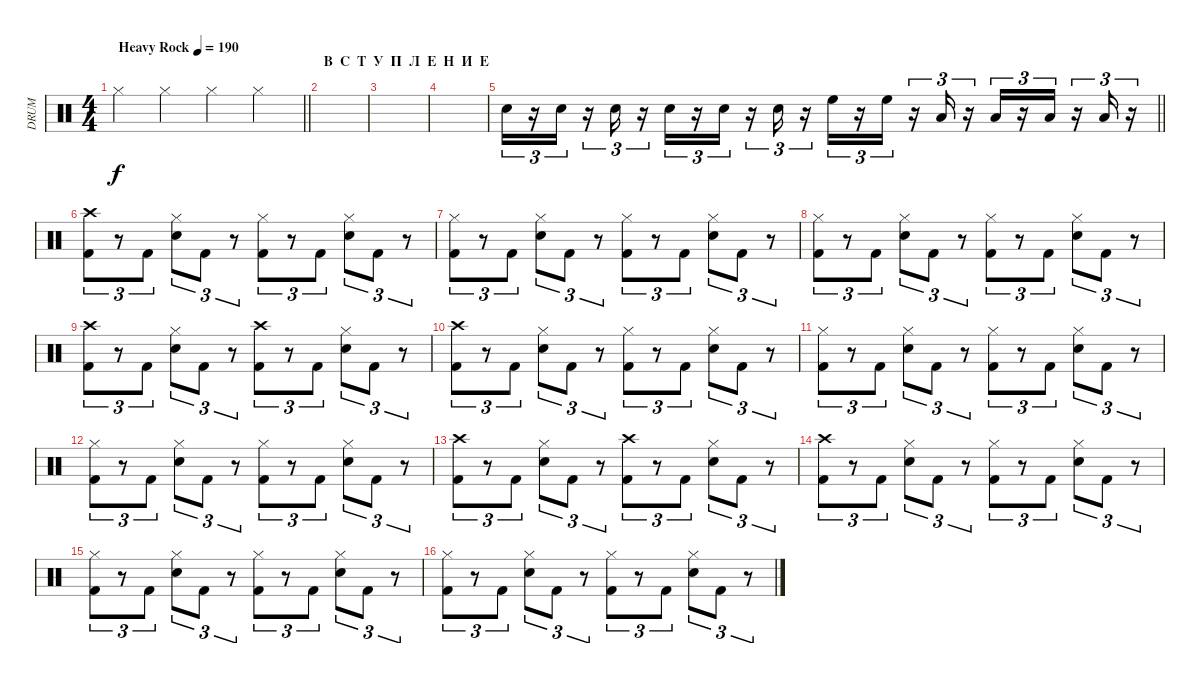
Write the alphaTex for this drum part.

\track ("DRUM" "DRUM") {instrument percussion bank 127}
\staff {score}
\articulation defaults
\ts (4 4)
\tempo (190 "Heavy Rock")
\clef neutral
\barLineRight lightlight
\ks c "Hi-Hat (closed)".4{dy f} "Hi-Hat (closed)".4 "Hi-Hat (closed)".4 "Hi-Hat (closed)".4
|
\section ("" "В  С  Т  У  П  Л  Е  Н  И  Е")
|
|
|
\barLineRight lightlight "Electric Snare (hit)".16{tu (3 2)}
r.16{tu (3 2)} "Electric Snare (hit)".16{tu (3 2)} r.16{tu (3 2)} "Electric Snare (hit)".16{tu (3 2)} r.16{tu (3 2)} "Electric Snare (hit)".16{tu (3 2)} r.16{tu (3 2)} "Electric Snare (hit)".16{tu (3 2)} r.16{tu (3 2)} "Electric Snare (hit)".16{tu (3 2)} r.16{tu (3 2)} "High Floor Tom (hit)".16{tu (3 2)} r.16{tu (3 2)} "High Floor Tom (hit)".16{tu (3 2)} r.16{tu (3 2)} "Low Tom (hit)".16{tu (3 2)} r.16{tu (3 2)} "Low Tom (hit)".16{tu (3 2)} r.16{tu (3 2)} "Low Tom (hit)".16{tu (3 2)} r.16{tu (3 2)} "Low Tom (hit)".16{tu (3 2)} r.16{tu (3 2)} |
("Crash high (hit)" "Kick (hit) 2").8{tu (3 2)} r.8{tu (3 2)} "Kick (hit) 2".8{tu (3 2)} ("Hi-Hat (closed)" "Electric Snare (hit)").8{tu (3 2)} "Kick (hit) 2".8{tu (3 2)} r.8{tu (3 2)} ("Hi-Hat (closed)" "Kick (hit) 2").8{tu (3 2)} r.8{tu (3 2)} "Kick (hit) 2".8{tu (3 2)} ("Hi-Hat (closed)" "Electric Snare (hit)").8{tu (3 2)} "Kick (hit) 2".8{tu (3 2)} r.8{tu (3 2)} |
("Hi-Hat (closed)" "Kick (hit) 2").8{tu (3 2)} r.8{tu (3 2)} "Kick (hit) 2".8{tu (3 2)} ("Hi-Hat (closed)" "Electric Snare (hit)").8{tu (3 2)} "Kick (hit) 2".8{tu (3 2)} r.8{tu (3 2)} ("Hi-Hat (closed)" "Kick (hit) 2").8{tu (3 2)} r.8{tu (3 2)} "Kick (hit) 2".8{tu (3 2)} ("Hi-Hat (closed)" "Electric Snare (hit)").8{tu (3 2)} "Kick (hit) 2".8{tu (3 2)} r.8{tu (3 2)} |
("Hi-Hat (closed)" "Kick (hit) 2").8{tu (3 2)} r.8{tu (3 2)} "Kick (hit) 2".8{tu (3 2)} ("Hi-Hat (closed)" "Electric Snare (hit)").8{tu (3 2)} "Kick (hit) 2".8{tu (3 2)} r.8{tu (3 2)} ("Hi-Hat (closed)" "Kick (hit) 2").8{tu (3 2)} r.8{tu (3 2)} "Kick (hit) 2".8{tu (3 2)} ("Hi-Hat (closed)" "Electric Snare (hit)").8{tu (3 2)} "Kick (hit) 2".8{tu (3 2)} r.8{tu (3 2)} |
("Crash high (hit)" "Kick (hit) 2").8{tu (3 2)} r.8{tu (3 2)} "Kick (hit) 2".8{tu (3 2)} ("Hi-Hat (closed)" "Electric Snare (hit)").8{tu (3 2)} "Kick (hit) 2".8{tu (3 2)} r.8{tu (3 2)} ("Crash high (hit)" "Kick (hit) 2").8{tu (3 2)} r.8{tu (3 2)} "Kick (hit) 2".8{tu (3 2)} ("Hi-Hat (closed)" "Electric Snare (hit)").8{tu (3 2)} "Kick (hit) 2".8{tu (3 2)} r.8{tu (3 2)} |
("Crash high (hit)" "Kick (hit) 2").8{tu (3 2)} r.8{tu (3 2)} "Kick (hit) 2".8{tu (3 2)} ("Hi-Hat (closed)" "Electric Snare (hit)").8{tu (3 2)} "Kick (hit) 2".8{tu (3 2)} r.8{tu (3 2)} ("Hi-Hat (closed)" "Kick (hit) 2").8{tu (3 2)} r.8{tu (3 2)} "Kick (hit) 2".8{tu (3 2)} ("Hi-Hat (closed)" "Electric Snare (hit)").8{tu (3 2)} "Kick (hit) 2".8{tu (3 2)} r.8{tu (3 2)} |
("Hi-Hat (closed)" "Kick (hit) 2").8{tu (3 2)} r.8{tu (3 2)} "Kick (hit) 2".8{tu (3 2)} ("Hi-Hat (closed)" "Electric Snare (hit)").8{tu (3 2)} "Kick (hit) 2".8{tu (3 2)} r.8{tu (3 2)} ("Hi-Hat (closed)" "Kick (hit) 2").8{tu (3 2)} r.8{tu (3 2)} "Kick (hit) 2".8{tu (3 2)} ("Hi-Hat (closed)" "Electric Snare (hit)").8{tu (3 2)} "Kick (hit) 2".8{tu (3 2)} r.8{tu (3 2)} |
("Hi-Hat (closed)" "Kick (hit) 2").8{tu (3 2)} r.8{tu (3 2)} "Kick (hit) 2".8{tu (3 2)} ("Hi-Hat (closed)" "Electric Snare (hit)").8{tu (3 2)} "Kick (hit) 2".8{tu (3 2)} r.8{tu (3 2)} ("Hi-Hat (closed)" "Kick (hit) 2").8{tu (3 2)} r.8{tu (3 2)} "Kick (hit) 2".8{tu (3 2)} ("Hi-Hat (closed)" "Electric Snare (hit)").8{tu (3 2)} "Kick (hit) 2".8{tu (3 2)} r.8{tu (3 2)} |
("Crash high (hit)" "Kick (hit) 2").8{tu (3 2)} r.8{tu (3 2)} "Kick (hit) 2".8{tu (3 2)} ("Hi-Hat (closed)" "Electric Snare (hit)").8{tu (3 2)} "Kick (hit) 2".8{tu (3 2)} r.8{tu (3 2)} ("Crash high (hit)" "Kick (hit) 2").8{tu (3 2)} r.8{tu (3 2)} "Kick (hit) 2".8{tu (3 2)} ("Hi-Hat (closed)" "Electric Snare (hit)").8{tu (3 2)} "Kick (hit) 2".8{tu (3 2)} r.8{tu (3 2)} |
("Crash high (hit)" "Kick (hit) 2").8{tu (3 2)} r.8{tu (3 2)} "Kick (hit) 2".8{tu (3 2)} ("Hi-Hat (closed)" "Electric Snare (hit)").8{tu (3 2)} "Kick (hit) 2".8{tu (3 2)} r.8{tu (3 2)} ("Hi-Hat (closed)" "Kick (hit) 2").8{tu (3 2)} r.8{tu (3 2)} "Kick (hit) 2".8{tu (3 2)} ("Hi-Hat (closed)" "Electric Snare (hit)").8{tu (3 2)} "Kick (hit) 2".8{tu (3 2)} r.8{tu (3 2)} |
("Hi-Hat (closed)" "Kick (hit) 2").8{tu (3 2)} r.8{tu (3 2)} "Kick (hit) 2".8{tu (3 2)} ("Hi-Hat (closed)" "Electric Snare (hit)").8{tu (3 2)} "Kick (hit) 2".8{tu (3 2)} r.8{tu (3 2)} ("Hi-Hat (closed)" "Kick (hit) 2").8{tu (3 2)} r.8{tu (3 2)} "Kick (hit) 2".8{tu (3 2)} ("Hi-Hat (closed)" "Electric Snare (hit)").8{tu (3 2)} "Kick (hit) 2".8{tu (3 2)} r.8{tu (3 2)} |
("Hi-Hat (closed)" "Kick (hit) 2").8{tu (3 2)} r.8{tu (3 2)} "Kick (hit) 2".8{tu (3 2)} ("Hi-Hat (closed)" "Electric Snare (hit)").8{tu (3 2)} "Kick (hit) 2".8{tu (3 2)} r.8{tu (3 2)} ("Hi-Hat (closed)" "Kick (hit) 2").8{tu (3 2)} r.8{tu (3 2)} "Kick (hit) 2".8{tu (3 2)} ("Hi-Hat (closed)" "Electric Snare (hit)").8{tu (3 2)} "Kick (hit) 2".8{tu (3 2)} r.8{tu (3 2)}
